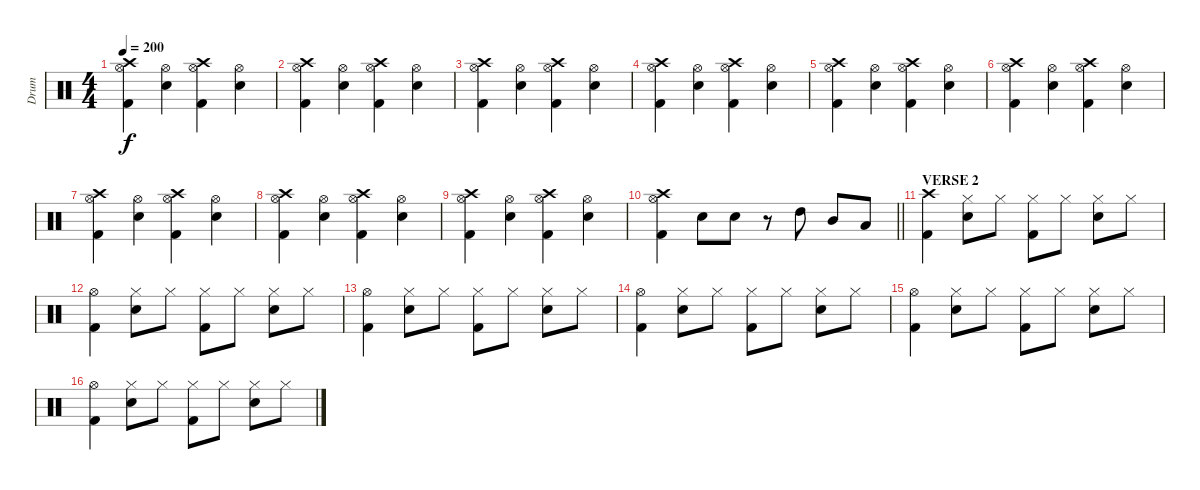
\track ("Drum" "Drum") {instrument percussion}
\staff {score}
\articulation defaults
\ts (4 4)
\tempo 200
\clef neutral
\ks c
("Crash high (hit)" "Hi-Hat (open)" "Kick (hit) 2").4{dy f} ("Hi-Hat (open)" "Snare (hit) 2").4 ("Crash high (hit)" "Hi-Hat (open)" "Kick (hit) 2").4 ("Hi-Hat (open)" "Snare (hit) 2").4 |
("Crash high (hit)" "Hi-Hat (open)" "Kick (hit) 2").4 ("Hi-Hat (open)" "Snare (hit) 2").4 ("Crash high (hit)" "Hi-Hat (open)" "Kick (hit) 2").4 ("Hi-Hat (open)" "Snare (hit) 2").4 |
("Crash high (hit)" "Hi-Hat (open)" "Kick (hit) 2").4 ("Hi-Hat (open)" "Snare (hit) 2").4 ("Crash high (hit)" "Hi-Hat (open)" "Kick (hit) 2").4 ("Hi-Hat (open)" "Snare (hit) 2").4 |
("Crash high (hit)" "Hi-Hat (open)" "Kick (hit) 2").4 ("Hi-Hat (open)" "Snare (hit) 2").4 ("Crash high (hit)" "Hi-Hat (open)" "Kick (hit) 2").4 ("Hi-Hat (open)" "Snare (hit) 2").4 |
("Crash high (hit)" "Hi-Hat (open)" "Kick (hit) 2").4 ("Hi-Hat (open)" "Snare (hit) 2").4 ("Crash high (hit)" "Hi-Hat (open)" "Kick (hit) 2").4 ("Hi-Hat (open)" "Snare (hit) 2").4 |
("Crash high (hit)" "Hi-Hat (open)" "Kick (hit) 2").4 ("Hi-Hat (open)" "Snare (hit) 2").4 ("Crash high (hit)" "Hi-Hat (open)" "Kick (hit) 2").4 ("Hi-Hat (open)" "Snare (hit) 2").4 |
("Crash high (hit)" "Hi-Hat (open)" "Kick (hit) 2").4 ("Hi-Hat (open)" "Snare (hit) 2").4 ("Crash high (hit)" "Hi-Hat (open)" "Kick (hit) 2").4 ("Hi-Hat (open)" "Snare (hit) 2").4 |
("Crash high (hit)" "Hi-Hat (open)" "Kick (hit) 2").4 ("Hi-Hat (open)" "Snare (hit) 2").4 ("Crash high (hit)" "Hi-Hat (open)" "Kick (hit) 2").4 ("Hi-Hat (open)" "Snare (hit) 2").4 |
("Crash high (hit)" "Hi-Hat (open)" "Kick (hit) 2").4 ("Hi-Hat (open)" "Snare (hit) 2").4 ("Crash high (hit)" "Hi-Hat (open)" "Kick (hit) 2").4 ("Hi-Hat (open)" "Snare (hit) 2").4 |
\barLineRight lightlight
("Crash high (hit)" "Hi-Hat (open)" "Kick (hit) 2").4 "Snare (hit) 2".8 "Snare (hit) 2".8 r.8 "High Tom (hit)".8 "Mid Tom (hit)".8 "Low Tom (hit)".8 |
\section ("" "VERSE 2")
("Crash high (hit)" "Kick (hit) 2").4 ("Hi-Hat (closed)" "Snare (hit) 2").8 "Hi-Hat (closed)".8 ("Hi-Hat (closed)" "Kick (hit) 2").8 "Hi-Hat (closed)".8 ("Hi-Hat (closed)" "Snare (hit) 2").8 "Hi-Hat (closed)".8 |
("Hi-Hat (open)" "Kick (hit) 2").4 ("Hi-Hat (closed)" "Snare (hit) 2").8 "Hi-Hat (closed)".8 ("Hi-Hat (closed)" "Kick (hit) 2").8 "Hi-Hat (closed)".8 ("Hi-Hat (closed)" "Snare (hit) 2").8 "Hi-Hat (closed)".8 |
("Hi-Hat (open)" "Kick (hit) 2").4 ("Hi-Hat (closed)" "Snare (hit) 2").8 "Hi-Hat (closed)".8 ("Hi-Hat (closed)" "Kick (hit) 2").8 "Hi-Hat (closed)".8 ("Hi-Hat (closed)" "Snare (hit) 2").8 "Hi-Hat (closed)".8 |
("Hi-Hat (open)" "Kick (hit) 2").4 ("Hi-Hat (closed)" "Snare (hit) 2").8 "Hi-Hat (closed)".8 ("Hi-Hat (closed)" "Kick (hit) 2").8 "Hi-Hat (closed)".8 ("Hi-Hat (closed)" "Snare (hit) 2").8 "Hi-Hat (closed)".8 |
("Hi-Hat (open)" "Kick (hit) 2").4 ("Hi-Hat (closed)" "Snare (hit) 2").8 "Hi-Hat (closed)".8 ("Hi-Hat (closed)" "Kick (hit) 2").8 "Hi-Hat (closed)".8 ("Hi-Hat (closed)" "Snare (hit) 2").8 "Hi-Hat (closed)".8 |
("Hi-Hat (open)" "Kick (hit) 2").4 ("Hi-Hat (closed)" "Snare (hit) 2").8 "Hi-Hat (closed)".8 ("Hi-Hat (closed)" "Kick (hit) 2").8 "Hi-Hat (closed)".8 ("Hi-Hat (closed)" "Snare (hit) 2").8 "Hi-Hat (closed)".8
